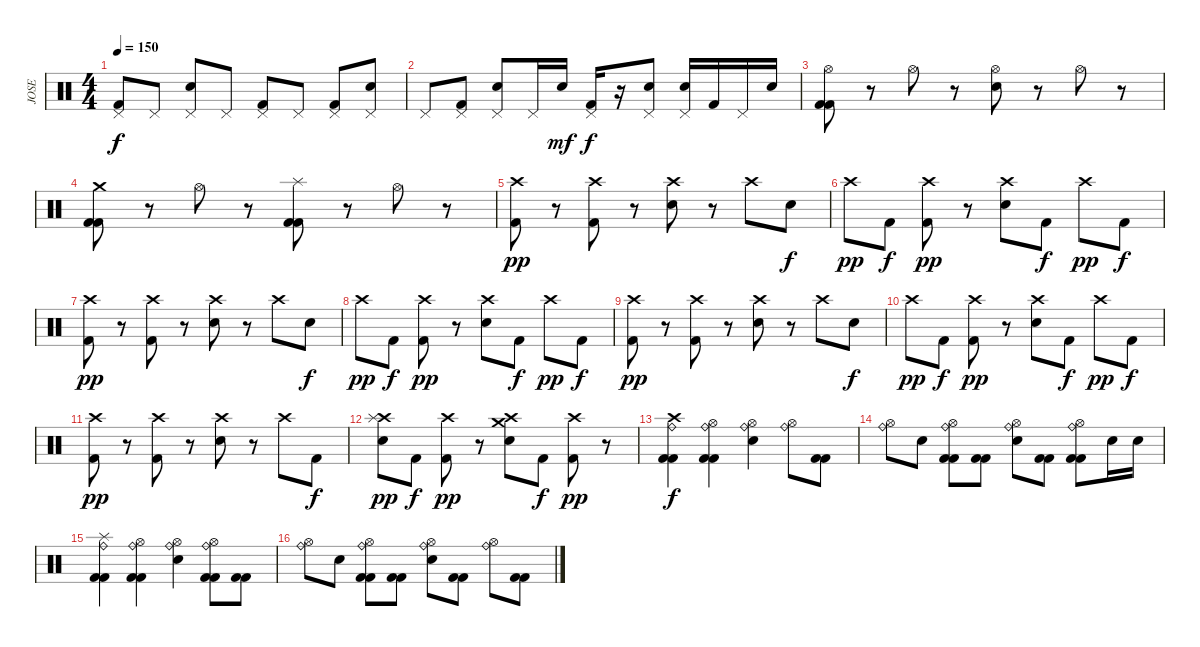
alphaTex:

\track ("JOSE" "JOSE") {instrument percussion}
\staff {score}
\articulation defaults
\ts (4 4)
\tempo 150
\clef neutral
\ks c
("Pedal Hi-Hat (hit)" "Kick (hit) 2").8{dy f} "Pedal Hi-Hat (hit)".8 ("Pedal Hi-Hat (hit)" "Electric Snare (hit)").8 "Pedal Hi-Hat (hit)".8 ("Pedal Hi-Hat (hit)" "Kick (hit) 2").8 "Pedal Hi-Hat (hit)".8 ("Pedal Hi-Hat (hit)" "Kick (hit) 2").8 ("Pedal Hi-Hat (hit)" "Electric Snare (hit)").8 |
"Pedal Hi-Hat (hit)".8 ("Pedal Hi-Hat (hit)" "Kick (hit) 2").8 ("Pedal Hi-Hat (hit)" "Electric Snare (hit)").8 "Pedal Hi-Hat (hit)".16 "Electric Snare (hit)".16{dy mf} ("Pedal Hi-Hat (hit)" "Kick (hit) 2").16{dy f} r.16 ("Pedal Hi-Hat (hit)" "Electric Snare (hit)").8 ("Pedal Hi-Hat (hit)" "Electric Snare (hit)").16 "Kick (hit) 2".16 "Pedal Hi-Hat (hit)".16 "Electric Snare (hit)".16 |
("Hi-Hat (open)" "Kick (hit) 2" "Kick (hit) 2").8 r.8 "Hi-Hat (open)".8 r.8 ("Hi-Hat (open)" "Electric Snare (hit)").8 r.8 "Hi-Hat (open)".8 r.8 |
("Crash medium (hit)" "Kick (hit) 2" "Kick (hit) 2").8 r.8 "Hi-Hat (open)".8 r.8 ("Splash (hit)" "Kick (hit) 2" "Kick (hit) 2").8 r.8 "Hi-Hat (open)".8 r.8 |
("Crash high (hit)" "Kick (hit) 2").8{dy pp} r.8 ("Crash high (hit)" "Kick (hit) 2").8 r.8 ("Crash high (hit)" "Electric Snare (hit)").8 r.8 "Crash high (hit)".8 "Electric Snare (hit)".8{dy f} |
"Crash high (hit)".8{dy pp} "Kick (hit) 2".8{dy f} ("Crash high (hit)" "Kick (hit) 2").8{dy pp} r.8 ("Crash high (hit)" "Electric Snare (hit)").8 "Kick (hit) 2".8{dy f} "Crash high (hit)".8{dy pp} "Kick (hit) 2".8{dy f} |
("Crash high (hit)" "Kick (hit) 2").8{dy pp} r.8 ("Crash high (hit)" "Kick (hit) 2").8 r.8 ("Crash high (hit)" "Electric Snare (hit)").8 r.8 "Crash high (hit)".8 "Electric Snare (hit)".8{dy f} |
"Crash high (hit)".8{dy pp} "Kick (hit) 2".8{dy f} ("Crash high (hit)" "Kick (hit) 2").8{dy pp} r.8 ("Crash high (hit)" "Electric Snare (hit)").8 "Kick (hit) 2".8{dy f} "Crash high (hit)".8{dy pp} "Kick (hit) 2".8{dy f} |
("Crash high (hit)" "Kick (hit) 2").8{dy pp} r.8 ("Crash high (hit)" "Kick (hit) 2").8 r.8 ("Crash high (hit)" "Electric Snare (hit)").8 r.8 "Crash high (hit)".8 "Electric Snare (hit)".8{dy f} |
"Crash high (hit)".8{dy pp} "Kick (hit) 2".8{dy f} ("Crash high (hit)" "Kick (hit) 2").8{dy pp} r.8 ("Crash high (hit)" "Electric Snare (hit)").8 "Kick (hit) 2".8{dy f} "Crash high (hit)".8{dy pp} "Kick (hit) 2".8{dy f} |
("Crash high (hit)" "Kick (hit) 2").8{dy pp} r.8 ("Crash high (hit)" "Kick (hit) 2").8 r.8 ("Crash high (hit)" "Electric Snare (hit)").8 r.8 "Crash high (hit)".8 "Kick (hit) 2".8{dy f} |
("Crash high (hit)" "Splash (hit)" "Electric Snare (hit)").8{dy pp} "Kick (hit) 2".8{dy f} ("Crash high (hit)" "Kick (hit) 2").8{dy pp} r.8 ("Crash high (hit)" "Crash medium (hit)" "Electric Snare (hit)").8 "Kick (hit) 2".8{dy f} ("Crash high (hit)" "Kick (hit) 2").8{dy pp} r.8 |
("Ride (bell)" "Crash high (hit)" "Kick (hit) 2" "Kick (hit) 2").4{dy f} ("Ride (bell)" "Hi-Hat (open)" "Kick (hit) 2" "Kick (hit) 2").4 ("Ride (bell)" "Hi-Hat (open)" "Electric Snare (hit)").4 ("Ride (bell)" "Hi-Hat (open)").8 ("Kick (hit) 2" "Kick (hit) 2").8 |
("Ride (bell)" "Hi-Hat (open)").8 "Electric Snare (hit)".8 ("Ride (bell)" "Hi-Hat (open)" "Kick (hit) 2" "Kick (hit) 2").8 ("Kick (hit) 2" "Kick (hit) 2").8 ("Ride (bell)" "Hi-Hat (open)" "Electric Snare (hit)").8 ("Kick (hit) 2" "Kick (hit) 2").8 ("Ride (bell)" "Hi-Hat (open)" "Kick (hit) 2" "Kick (hit) 2").8 "Electric Snare (hit)".16 "Electric Snare (hit)".16 |
("Ride (bell)" "Splash (hit)" "Kick (hit) 2" "Kick (hit) 2").4 ("Ride (bell)" "Hi-Hat (open)" "Kick (hit) 2" "Kick (hit) 2").4 ("Ride (bell)" "Hi-Hat (open)" "Electric Snare (hit)").4 ("Ride (bell)" "Hi-Hat (open)" "Kick (hit) 2" "Kick (hit) 2").8 ("Kick (hit) 2" "Kick (hit) 2").8 |
("Ride (bell)" "Hi-Hat (open)").8 "Electric Snare (hit)".8 ("Ride (bell)" "Hi-Hat (open)" "Kick (hit) 2" "Kick (hit) 2").8 ("Kick (hit) 2" "Kick (hit) 2").8 ("Ride (bell)" "Hi-Hat (open)" "Electric Snare (hit)").8 ("Kick (hit) 2" "Kick (hit) 2").8 ("Ride (bell)" "Hi-Hat (open)").8 ("Kick (hit) 2" "Kick (hit) 2").8
